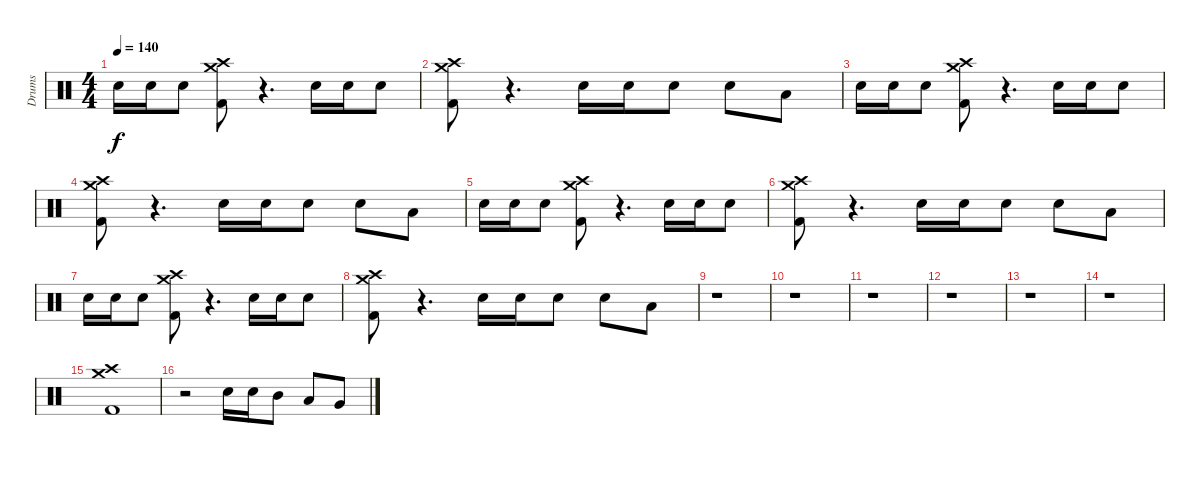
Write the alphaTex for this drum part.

\track ("Drums" "Drums") {instrument percussion}
\staff {score}
\articulation defaults
\ts (4 4)
\tempo 140
\clef neutral
\ks c "Snare (hit) 2".16{dy f} "Snare (hit) 2".16 "Snare (hit) 2".8
("Crash medium (hit)" "Crash high (hit)" "Kick (hit) 2").8 r.4{d} "Snare (hit) 2".16 "Snare (hit) 2".16 "Snare (hit) 2".8 |
("Crash medium (hit)" "Crash high (hit)" "Kick (hit) 2").8 r.4{d} "Snare (hit) 2".16 "Snare (hit) 2".16 "Snare (hit) 2".8 "Snare (hit) 2".8 "Low Tom (hit)".8 |
"Snare (hit) 2".16 "Snare (hit) 2".16 "Snare (hit) 2".8 ("Crash medium (hit)" "Crash high (hit)" "Kick (hit) 2").8 r.4{d} "Snare (hit) 2".16 "Snare (hit) 2".16 "Snare (hit) 2".8 |
("Crash medium (hit)" "Crash high (hit)" "Kick (hit) 2").8 r.4{d} "Snare (hit) 2".16 "Snare (hit) 2".16 "Snare (hit) 2".8 "Snare (hit) 2".8 "Low Tom (hit)".8 |
"Snare (hit) 2".16 "Snare (hit) 2".16 "Snare (hit) 2".8 ("Crash medium (hit)" "Crash high (hit)" "Kick (hit) 2").8 r.4{d} "Snare (hit) 2".16 "Snare (hit) 2".16 "Snare (hit) 2".8 |
("Crash medium (hit)" "Crash high (hit)" "Kick (hit) 2").8 r.4{d} "Snare (hit) 2".16 "Snare (hit) 2".16 "Snare (hit) 2".8 "Snare (hit) 2".8 "Low Tom (hit)".8 |
"Snare (hit) 2".16 "Snare (hit) 2".16 "Snare (hit) 2".8 ("Crash medium (hit)" "Crash high (hit)" "Kick (hit) 2").8 r.4{d} "Snare (hit) 2".16 "Snare (hit) 2".16 "Snare (hit) 2".8 |
("Crash medium (hit)" "Crash high (hit)" "Kick (hit) 2").8 r.4{d} "Snare (hit) 2".16 "Snare (hit) 2".16 "Snare (hit) 2".8 "Snare (hit) 2".8 "Low Tom (hit)".8 |
r.1 |
r.1 |
r.1 |
r.1 |
r.1 |
r.1 |
("Crash medium (hit)" "Crash high (hit)" "Kick (hit) 2").1 |
r.2 "Snare (hit) 2".16 "Snare (hit) 2".16 "Mid Tom (hit)".8 "Low Tom (hit)".8 "Very Low Tom (hit)".8
